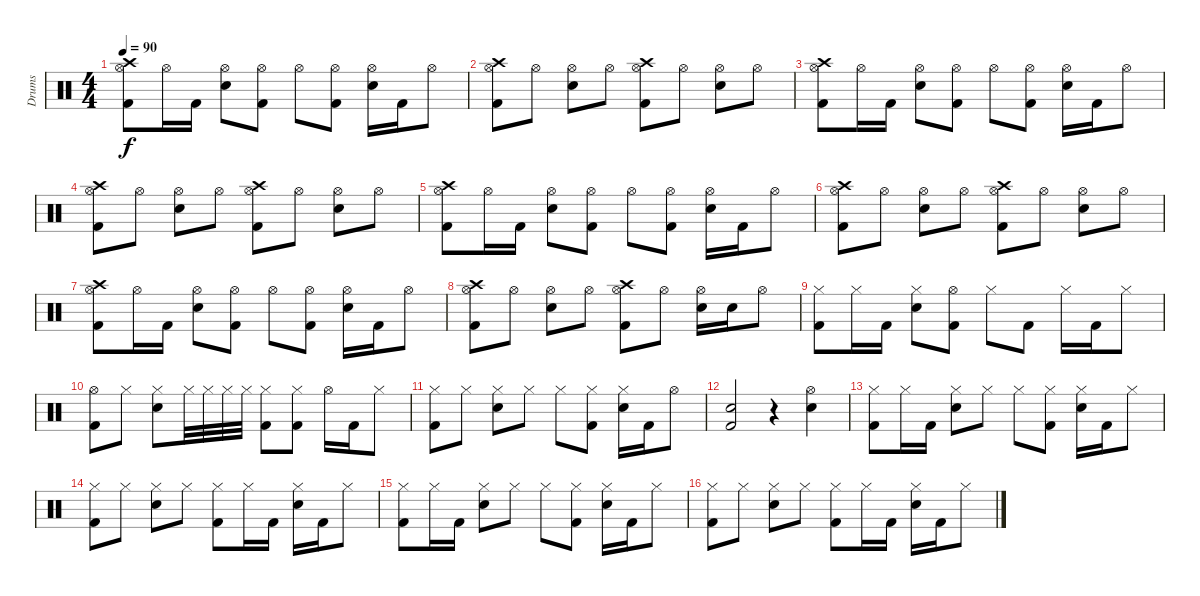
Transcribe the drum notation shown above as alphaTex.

\track ("Drums" "Drums") {instrument percussion}
\staff {score}
\articulation defaults
\ts (4 4)
\tempo 90
\clef neutral
\ks c
("Crash high (hit)" "Hi-Hat (open)" "Kick (hit) 2").8{dy f} "Hi-Hat (open)".16 "Kick (hit) 2".16 ("Hi-Hat (open)" "Snare (hit) 2").8 ("Hi-Hat (open)" "Kick (hit) 2").8 "Hi-Hat (open)".8 ("Kick (hit) 2" "Hi-Hat (open)").8 ("Snare (hit) 2" "Hi-Hat (open)").16 "Kick (hit) 2".16 "Hi-Hat (open)".8 |
("Crash high (hit)" "Hi-Hat (open)" "Kick (hit) 2").8 "Hi-Hat (open)".8 ("Snare (hit) 2" "Hi-Hat (open)").8 "Hi-Hat (open)".8 ("Crash high (hit)" "Kick (hit) 2" "Hi-Hat (open)").8 "Hi-Hat (open)".8 ("Snare (hit) 2" "Hi-Hat (open)").8 "Hi-Hat (open)".8 |
("Crash high (hit)" "Hi-Hat (open)" "Kick (hit) 2").8 "Hi-Hat (open)".16 "Kick (hit) 2".16 ("Hi-Hat (open)" "Snare (hit) 2").8 ("Hi-Hat (open)" "Kick (hit) 2").8 "Hi-Hat (open)".8 ("Kick (hit) 2" "Hi-Hat (open)").8 ("Snare (hit) 2" "Hi-Hat (open)").16 "Kick (hit) 2".16 "Hi-Hat (open)".8 |
("Crash high (hit)" "Hi-Hat (open)" "Kick (hit) 2").8 "Hi-Hat (open)".8 ("Snare (hit) 2" "Hi-Hat (open)").8 "Hi-Hat (open)".8 ("Crash high (hit)" "Kick (hit) 2" "Hi-Hat (open)").8 "Hi-Hat (open)".8 ("Snare (hit) 2" "Hi-Hat (open)").8 "Hi-Hat (open)".8 |
("Crash high (hit)" "Hi-Hat (open)" "Kick (hit) 2").8 "Hi-Hat (open)".16 "Kick (hit) 2".16 ("Hi-Hat (open)" "Snare (hit) 2").8 ("Hi-Hat (open)" "Kick (hit) 2").8 "Hi-Hat (open)".8 ("Kick (hit) 2" "Hi-Hat (open)").8 ("Snare (hit) 2" "Hi-Hat (open)").16 "Kick (hit) 2".16 "Hi-Hat (open)".8 |
("Crash high (hit)" "Hi-Hat (open)" "Kick (hit) 2").8 "Hi-Hat (open)".8 ("Snare (hit) 2" "Hi-Hat (open)").8 "Hi-Hat (open)".8 ("Crash high (hit)" "Kick (hit) 2" "Hi-Hat (open)").8 "Hi-Hat (open)".8 ("Snare (hit) 2" "Hi-Hat (open)").8 "Hi-Hat (open)".8 |
("Crash high (hit)" "Hi-Hat (open)" "Kick (hit) 2").8 "Hi-Hat (open)".16 "Kick (hit) 2".16 ("Hi-Hat (open)" "Snare (hit) 2").8 ("Hi-Hat (open)" "Kick (hit) 2").8 "Hi-Hat (open)".8 ("Kick (hit) 2" "Hi-Hat (open)").8 ("Snare (hit) 2" "Hi-Hat (open)").16 "Kick (hit) 2".16 "Hi-Hat (open)".8 |
("Crash high (hit)" "Hi-Hat (open)" "Kick (hit) 2").8 "Hi-Hat (open)".8 ("Snare (hit) 2" "Hi-Hat (open)").8 "Hi-Hat (open)".8 ("Crash high (hit)" "Kick (hit) 2" "Hi-Hat (open)").8 "Hi-Hat (open)".8 ("Hi-Hat (open)" "Snare (hit) 2").16 "Snare (hit) 2".16 "Hi-Hat (open)".8 |
("Hi-Hat (closed)" "Kick (hit) 2").8 "Hi-Hat (closed)".16 "Kick (hit) 2".16 ("Hi-Hat (closed)" "Snare (hit) 2").8 ("Kick (hit) 2" "Hi-Hat (open)").8 "Hi-Hat (closed)".8 "Kick (hit) 2".8 "Hi-Hat (closed)".16 "Kick (hit) 2".16 "Hi-Hat (closed)".8 |
("Hi-Hat (open)" "Kick (hit) 2").8 "Hi-Hat (closed)".8 ("Hi-Hat (closed)" "Snare (hit) 2").8 "Hi-Hat (closed)".32{volume 10} "Hi-Hat (closed)".32 "Hi-Hat (closed)".32 "Hi-Hat (closed)".32 ("Hi-Hat (closed)" "Kick (hit) 2").8{volume 13} ("Kick (hit) 2" "Hi-Hat (closed)").8 "Hi-Hat (open)".16 "Kick (hit) 2".16 "Hi-Hat (closed)".8 |
("Hi-Hat (closed)" "Kick (hit) 2").8 "Hi-Hat (closed)".8 ("Snare (hit) 2" "Hi-Hat (closed)").8 "Hi-Hat (closed)".8 "Hi-Hat (closed)".8 ("Hi-Hat (closed)" "Kick (hit) 2").8 ("Hi-Hat (closed)" "Snare (hit) 2").16 "Kick (hit) 2".16 "Hi-Hat (open)".8 |
("Snare (hit) 2" "Kick (hit) 2").2 r.4 ("Hi-Hat (open)" "Snare (hit) 2").4 |
("Hi-Hat (closed)" "Kick (hit) 2").8 "Hi-Hat (closed)".16 "Kick (hit) 2".16 ("Hi-Hat (closed)" "Snare (hit) 2").8 "Hi-Hat (closed)".8 "Hi-Hat (closed)".8 ("Hi-Hat (closed)" "Kick (hit) 2").8 ("Hi-Hat (closed)" "Snare (hit) 2").16 "Kick (hit) 2".16 "Hi-Hat (closed)".8 |
("Hi-Hat (closed)" "Kick (hit) 2").8 "Hi-Hat (closed)".8 ("Hi-Hat (closed)" "Snare (hit) 2").8 "Hi-Hat (closed)".8 ("Hi-Hat (closed)" "Kick (hit) 2").8 "Hi-Hat (closed)".16 "Kick (hit) 2".16 ("Hi-Hat (closed)" "Snare (hit) 2").16 "Kick (hit) 2".16 "Hi-Hat (closed)".8 |
("Hi-Hat (closed)" "Kick (hit) 2").8 "Hi-Hat (closed)".16 "Kick (hit) 2".16 ("Hi-Hat (closed)" "Snare (hit) 2").8 "Hi-Hat (closed)".8 "Hi-Hat (closed)".8 ("Hi-Hat (closed)" "Kick (hit) 2").8 ("Hi-Hat (closed)" "Snare (hit) 2").16 "Kick (hit) 2".16 "Hi-Hat (closed)".8 |
("Hi-Hat (closed)" "Kick (hit) 2").8 "Hi-Hat (closed)".8 ("Hi-Hat (closed)" "Snare (hit) 2").8 "Hi-Hat (closed)".8 ("Hi-Hat (closed)" "Kick (hit) 2").8 "Hi-Hat (closed)".16 "Kick (hit) 2".16 ("Hi-Hat (closed)" "Snare (hit) 2").16 "Kick (hit) 2".16 "Hi-Hat (closed)".8
